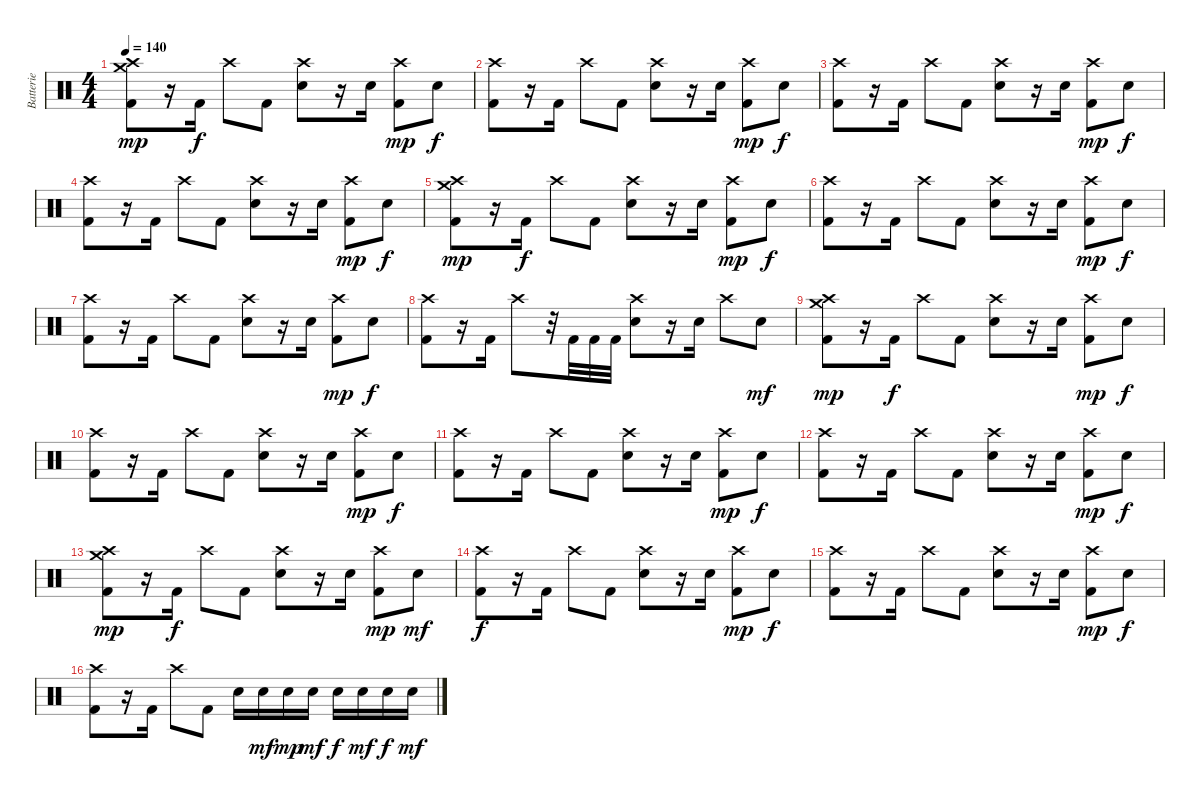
\track ("Batterie" "Batterie") {instrument percussion}
\staff {score}
\articulation defaults
\ts (4 4)
\tempo 140
\clef neutral
\ks c
("Kick (hit) 2" "Crash medium (hit)" "Crash high (hit)").8{dy mp} r.16 "Kick (hit) 2".16{dy f} "Crash high (hit)".8 "Kick (hit) 2".8 ("Electric Snare (hit)" "Crash high (hit)").8 r.16 "Electric Snare (hit)".16 ("Kick (hit) 2" "Crash high (hit)").8{dy mp} "Electric Snare (hit)".8{dy f} |
("Kick (hit) 2" "Crash high (hit)").8 r.16 "Kick (hit) 2".16 "Crash high (hit)".8 "Kick (hit) 2".8 ("Electric Snare (hit)" "Crash high (hit)").8 r.16 "Electric Snare (hit)".16 ("Kick (hit) 2" "Crash high (hit)").8{dy mp} "Electric Snare (hit)".8{dy f} |
("Kick (hit) 2" "Crash high (hit)").8 r.16 "Kick (hit) 2".16 "Crash high (hit)".8 "Kick (hit) 2".8 ("Electric Snare (hit)" "Crash high (hit)").8 r.16 "Electric Snare (hit)".16 ("Kick (hit) 2" "Crash high (hit)").8{dy mp} "Electric Snare (hit)".8{dy f} |
("Kick (hit) 2" "Crash high (hit)").8 r.16 "Kick (hit) 2".16 "Crash high (hit)".8 "Kick (hit) 2".8 ("Electric Snare (hit)" "Crash high (hit)").8 r.16 "Electric Snare (hit)".16 ("Kick (hit) 2" "Crash high (hit)").8{dy mp} "Electric Snare (hit)".8{dy f} |
("Kick (hit) 2" "Crash medium (hit)" "Crash high (hit)").8{dy mp} r.16 "Kick (hit) 2".16{dy f} "Crash high (hit)".8 "Kick (hit) 2".8 ("Electric Snare (hit)" "Crash high (hit)").8 r.16 "Electric Snare (hit)".16 ("Kick (hit) 2" "Crash high (hit)").8{dy mp} "Electric Snare (hit)".8{dy f} |
("Kick (hit) 2" "Crash high (hit)").8 r.16 "Kick (hit) 2".16 "Crash high (hit)".8 "Kick (hit) 2".8 ("Electric Snare (hit)" "Crash high (hit)").8 r.16 "Electric Snare (hit)".16 ("Kick (hit) 2" "Crash high (hit)").8{dy mp} "Electric Snare (hit)".8{dy f} |
("Kick (hit) 2" "Crash high (hit)").8 r.16 "Kick (hit) 2".16 "Crash high (hit)".8 "Kick (hit) 2".8 ("Electric Snare (hit)" "Crash high (hit)").8 r.16 "Electric Snare (hit)".16 ("Kick (hit) 2" "Crash high (hit)").8{dy mp} "Electric Snare (hit)".8{dy f} |
("Kick (hit) 2" "Crash high (hit)").8 r.16 "Kick (hit) 2".16 "Crash high (hit)".8 r.32 "Kick (hit) 2".32 "Kick (hit) 2".32 "Kick (hit) 2".32 ("Electric Snare (hit)" "Crash high (hit)").8 r.16 "Electric Snare (hit)".16 "Crash high (hit)".8 "Electric Snare (hit)".8{dy mf} |
("Kick (hit) 2" "Crash medium (hit)" "Crash high (hit)").8{dy mp} r.16 "Kick (hit) 2".16{dy f} "Crash high (hit)".8 "Kick (hit) 2".8 ("Electric Snare (hit)" "Crash high (hit)").8 r.16 "Electric Snare (hit)".16 ("Kick (hit) 2" "Crash high (hit)").8{dy mp} "Electric Snare (hit)".8{dy f} |
("Kick (hit) 2" "Crash high (hit)").8 r.16 "Kick (hit) 2".16 "Crash high (hit)".8 "Kick (hit) 2".8 ("Electric Snare (hit)" "Crash high (hit)").8 r.16 "Electric Snare (hit)".16 ("Kick (hit) 2" "Crash high (hit)").8{dy mp} "Electric Snare (hit)".8{dy f} |
("Kick (hit) 2" "Crash high (hit)").8 r.16 "Kick (hit) 2".16 "Crash high (hit)".8 "Kick (hit) 2".8 ("Electric Snare (hit)" "Crash high (hit)").8 r.16 "Electric Snare (hit)".16 ("Kick (hit) 2" "Crash high (hit)").8{dy mp} "Electric Snare (hit)".8{dy f} |
("Kick (hit) 2" "Crash high (hit)").8 r.16 "Kick (hit) 2".16 "Crash high (hit)".8 "Kick (hit) 2".8 ("Electric Snare (hit)" "Crash high (hit)").8 r.16 "Electric Snare (hit)".16 ("Kick (hit) 2" "Crash high (hit)").8{dy mp} "Electric Snare (hit)".8{dy f} |
("Kick (hit) 2" "Crash medium (hit)" "Crash high (hit)").8{dy mp} r.16 "Kick (hit) 2".16{dy f} "Crash high (hit)".8 "Kick (hit) 2".8 ("Electric Snare (hit)" "Crash high (hit)").8 r.16 "Electric Snare (hit)".16 ("Kick (hit) 2" "Crash high (hit)").8{dy mp} "Electric Snare (hit)".8{dy mf} |
("Kick (hit) 2" "Crash high (hit)").8{dy f} r.16 "Kick (hit) 2".16 "Crash high (hit)".8 "Kick (hit) 2".8 ("Electric Snare (hit)" "Crash high (hit)").8 r.16 "Electric Snare (hit)".16 ("Kick (hit) 2" "Crash high (hit)").8{dy mp} "Electric Snare (hit)".8{dy f} |
("Kick (hit) 2" "Crash high (hit)").8 r.16 "Kick (hit) 2".16 "Crash high (hit)".8 "Kick (hit) 2".8 ("Electric Snare (hit)" "Crash high (hit)").8 r.16 "Electric Snare (hit)".16 ("Kick (hit) 2" "Crash high (hit)").8{dy mp} "Electric Snare (hit)".8{dy f} |
("Kick (hit) 2" "Crash high (hit)").8 r.16 "Kick (hit) 2".16 "Crash high (hit)".8 "Kick (hit) 2".8 "Electric Snare (hit)".16 "Electric Snare (hit)".16{dy mf} "Electric Snare (hit)".16{dy mp} "Electric Snare (hit)".16{dy mf} "Electric Snare (hit)".16{dy f} "Electric Snare (hit)".16{dy mf} "Electric Snare (hit)".16{dy f} "Electric Snare (hit)".16{dy mf}
